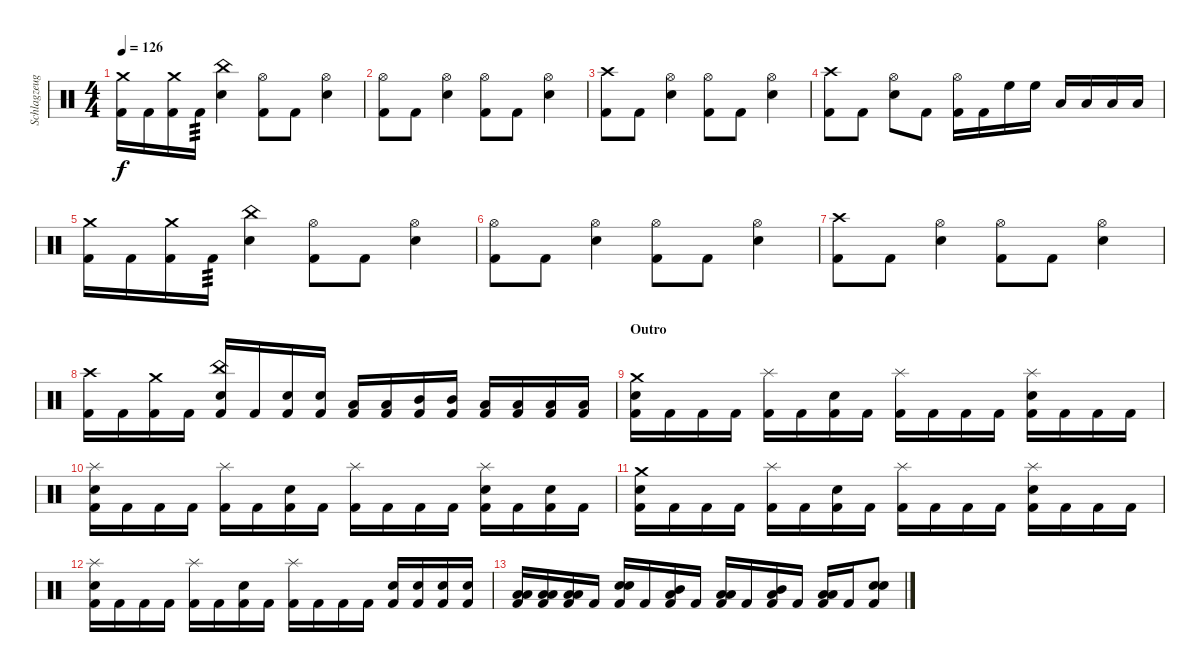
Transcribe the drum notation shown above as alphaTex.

\track ("Schlagzeug" "Schlagzeug") {instrument percussion}
\staff {score}
\articulation defaults
\ts (4 4)
\tempo 126
\clef neutral
\ks c
("Crash medium (hit)" "Kick (hit) 2").16{dy f} "Kick (hit) 2".16 ("Crash medium (hit)" "Kick (hit) 2").16 "Kick (hit) 2".16{tp 3} ("China (hit)" "Snare (hit) 2").4 ("Hi-Hat (open)" "Kick (hit) 2").8 "Kick (hit) 2".8 ("Hi-Hat (open)" "Snare (hit) 2").4 |
("Hi-Hat (open)" "Kick (hit) 2").8 "Kick (hit) 2".8 ("Hi-Hat (open)" "Snare (hit) 2").4 ("Hi-Hat (open)" "Kick (hit) 2").8 "Kick (hit) 2".8 ("Hi-Hat (open)" "Snare (hit) 2").4 |
("Crash high (hit)" "Kick (hit) 2").8 "Kick (hit) 2".8 ("Hi-Hat (open)" "Snare (hit) 2").4 ("Hi-Hat (open)" "Kick (hit) 2").8 "Kick (hit) 2".8 ("Hi-Hat (open)" "Snare (hit) 2").4 |
("Crash high (hit)" "Kick (hit) 2").8 "Kick (hit) 2".8 ("Hi-Hat (open)" "Snare (hit) 2").8 "Kick (hit) 2".8 ("Hi-Hat (open)" "Kick (hit) 2").16 "Kick (hit) 2".16 "High Floor Tom (hit)".16 "High Floor Tom (hit)".16 "Low Tom (hit)".16 "Low Tom (hit)".16 "Low Tom (hit)".16 "Low Tom (hit)".16 |
("Crash medium (hit)" "Kick (hit) 2").16 "Kick (hit) 2".16 ("Crash medium (hit)" "Kick (hit) 2").16 "Kick (hit) 2".16{tp 3} ("China (hit)" "Snare (hit) 2").4 ("Hi-Hat (open)" "Kick (hit) 2").8 "Kick (hit) 2".8 ("Hi-Hat (open)" "Snare (hit) 2").4 |
("Hi-Hat (open)" "Kick (hit) 2").8 "Kick (hit) 2".8 ("Hi-Hat (open)" "Snare (hit) 2").4 ("Hi-Hat (open)" "Kick (hit) 2").8 "Kick (hit) 2".8 ("Hi-Hat (open)" "Snare (hit) 2").4 |
("Crash high (hit)" "Kick (hit) 2").8 "Kick (hit) 2".8 ("Hi-Hat (open)" "Snare (hit) 2").4 ("Hi-Hat (open)" "Kick (hit) 2").8 "Kick (hit) 2".8 ("Hi-Hat (open)" "Snare (hit) 2").4 |
("Crash high (hit)" "Kick (hit) 2").16 "Kick (hit) 2".16 ("Crash medium (hit)" "Kick (hit) 2").16 "Kick (hit) 2".16 ("China (hit)" "Snare (hit) 2" "Kick (hit) 2").16 "Kick (hit) 2".16 ("Snare (hit) 2" "Kick (hit) 2").16 ("Snare (hit) 2" "Kick (hit) 2").16 ("Low Tom (hit)" "Kick (hit) 2").16 ("Low Tom (hit)" "Kick (hit) 2").16 ("Mid Tom (hit)" "Kick (hit) 2").16 ("Mid Tom (hit)" "Kick (hit) 2").16 ("Low Tom (hit)" "Kick (hit) 2").16 ("Low Tom (hit)" "Kick (hit) 2").16 ("Low Floor Tom (hit)" "Kick (hit) 2").16 ("Low Floor Tom (hit)" "Kick (hit) 2").16 |
\section ("" "Outro")
("Crash medium (hit)" "Snare (hit) 2" "Kick (hit) 2").16 "Kick (hit) 2".16 "Kick (hit) 2".16 "Kick (hit) 2".16 ("Splash (hit)" "Kick (hit) 2").16 "Kick (hit) 2".16 ("Snare (hit) 2" "Kick (hit) 2").16 "Kick (hit) 2".16 ("Splash (hit)" "Kick (hit) 2").16 "Kick (hit) 2".16 "Kick (hit) 2".16 "Kick (hit) 2".16 ("Splash (hit)" "Snare (hit) 2" "Kick (hit) 2").16 "Kick (hit) 2".16 "Kick (hit) 2".16 "Kick (hit) 2".16 |
("Splash (hit)" "Snare (hit) 2" "Kick (hit) 2").16 "Kick (hit) 2".16 "Kick (hit) 2".16 "Kick (hit) 2".16 ("Splash (hit)" "Kick (hit) 2").16 "Kick (hit) 2".16 ("Snare (hit) 2" "Kick (hit) 2").16 "Kick (hit) 2".16 ("Splash (hit)" "Kick (hit) 2").16 "Kick (hit) 2".16 "Kick (hit) 2".16 "Kick (hit) 2".16 ("Splash (hit)" "Snare (hit) 2" "Kick (hit) 2").16 "Kick (hit) 2".16 ("Snare (hit) 2" "Kick (hit) 2").16 "Kick (hit) 2".16 |
("Crash medium (hit)" "Snare (hit) 2" "Kick (hit) 2").16 "Kick (hit) 2".16 "Kick (hit) 2".16 "Kick (hit) 2".16 ("Splash (hit)" "Kick (hit) 2").16 "Kick (hit) 2".16 ("Snare (hit) 2" "Kick (hit) 2").16 "Kick (hit) 2".16 ("Splash (hit)" "Kick (hit) 2").16 "Kick (hit) 2".16 "Kick (hit) 2".16 "Kick (hit) 2".16 ("Splash (hit)" "Snare (hit) 2" "Kick (hit) 2").16 "Kick (hit) 2".16 "Kick (hit) 2".16 "Kick (hit) 2".16 |
("Splash (hit)" "Snare (hit) 2" "Kick (hit) 2").16 "Kick (hit) 2".16 "Kick (hit) 2".16 "Kick (hit) 2".16 ("Splash (hit)" "Kick (hit) 2").16 "Kick (hit) 2".16 ("Snare (hit) 2" "Kick (hit) 2").16 "Kick (hit) 2".16 ("Splash (hit)" "Kick (hit) 2").16 "Kick (hit) 2".16 "Kick (hit) 2".16 "Kick (hit) 2".16 ("Snare (hit) 2" "Kick (hit) 2").16 ("Snare (hit) 2" "Kick (hit) 2").16 ("Snare (hit) 2" "Kick (hit) 2").16 ("Snare (hit) 2" "Kick (hit) 2").16 |
("Low Tom (hit)" "Low Floor Tom (hit)" "Kick (hit) 2").16 ("Low Tom (hit)" "Low Floor Tom (hit)" "Kick (hit) 2").16 ("Low Tom (hit)" "Low Floor Tom (hit)" "Kick (hit) 2").16 "Kick (hit) 2".16 ("Snare (hit) 2" "Snare (hit) 2" "Kick (hit) 2").16 "Kick (hit) 2".16 ("Mid Tom (hit)" "Low Tom (hit)" "Kick (hit) 2").16 "Kick (hit) 2".16 ("Low Tom (hit)" "Low Floor Tom (hit)" "Kick (hit) 2").16 "Kick (hit) 2".16 ("Mid Tom (hit)" "Low Tom (hit)" "Kick (hit) 2").16 "Kick (hit) 2".16 ("Low Tom (hit)" "Low Floor Tom (hit)" "Kick (hit) 2").16 "Kick (hit) 2".16 ("Snare (hit) 2" "Snare (hit) 2" "Kick (hit) 2").8
